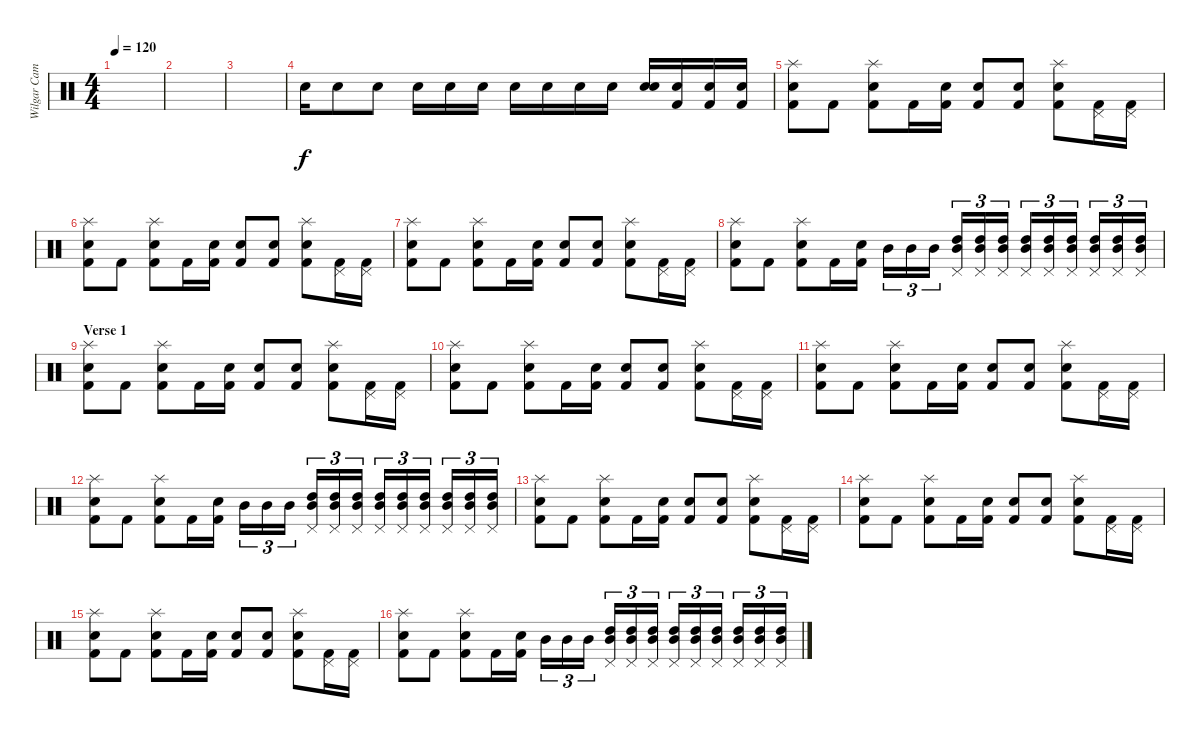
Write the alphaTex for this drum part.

\track ("Wilgar Campbell" "Wilgar Cam") {instrument percussion}
\staff {score}
\articulation defaults
\ts (4 4)
\tempo 120
\clef neutral
\ks c
|
|
|
"Electric Snare (hit)".16 "Snare (hit) 2".8 "Snare (hit) 2".8 "Snare (hit) 2".16 "Electric Snare (hit)".16 "Snare (hit) 2".16 "Snare (hit) 2".16 "Electric Snare (hit)".16 "Snare (hit) 2".16 "Electric Snare (hit)".16 ("Snare (hit) 2" "Electric Snare (hit)").16 ("Snare (hit) 2" "Kick (hit) 2").16 ("Snare (hit) 2" "Kick (hit) 2").16 ("Snare (hit) 2" "Kick (hit) 2").16 |
("Splash (hit)" "Snare (hit) 2" "Kick (hit) 2").8 "Kick (hit) 2".8 ("Splash (hit)" "Electric Snare (hit)" "Kick (hit) 2").8 "Kick (hit) 2".16 ("Snare (hit) 2" "Kick (hit) 2").16 ("Snare (hit) 2" "Kick (hit) 2").8 ("Electric Snare (hit)" "Kick (hit) 2").8 ("Splash (hit)" "Electric Snare (hit)" "Kick (hit) 2").8 ("Pedal Hi-Hat (hit)" "Kick (hit) 2").16 ("Pedal Hi-Hat (hit)" "Kick (hit) 2").16 |
("Splash (hit)" "Snare (hit) 2" "Kick (hit) 2").8 "Kick (hit) 2".8 ("Splash (hit)" "Electric Snare (hit)" "Kick (hit) 2").8 "Kick (hit) 2".16 ("Snare (hit) 2" "Kick (hit) 2").16 ("Snare (hit) 2" "Kick (hit) 2").8 ("Electric Snare (hit)" "Kick (hit) 2").8 ("Splash (hit)" "Electric Snare (hit)" "Kick (hit) 2").8 ("Pedal Hi-Hat (hit)" "Kick (hit) 2").16 ("Pedal Hi-Hat (hit)" "Kick (hit) 2").16 |
("Splash (hit)" "Snare (hit) 2" "Kick (hit) 2").8 "Kick (hit) 2".8 ("Splash (hit)" "Electric Snare (hit)" "Kick (hit) 2").8 "Kick (hit) 2".16 ("Snare (hit) 2" "Kick (hit) 2").16 ("Snare (hit) 2" "Kick (hit) 2").8 ("Electric Snare (hit)" "Kick (hit) 2").8 ("Splash (hit)" "Electric Snare (hit)" "Kick (hit) 2").8 ("Pedal Hi-Hat (hit)" "Kick (hit) 2").16 ("Pedal Hi-Hat (hit)" "Kick (hit) 2").16 |
("Splash (hit)" "Snare (hit) 2" "Kick (hit) 2").8 "Kick (hit) 2".8 ("Splash (hit)" "Electric Snare (hit)" "Kick (hit) 2").8 "Kick (hit) 2".16 ("Snare (hit) 2" "Kick (hit) 2").16 "Mid Tom (hit)".16{tu (3 2)} "Mid Tom (hit)".16{tu (3 2)} "Mid Tom (hit)".16{tu (3 2)} ("Pedal Hi-Hat (hit)" "High Tom (hit)" "Mid Tom (hit)").16{tu (3 2)} ("Pedal Hi-Hat (hit)" "High Tom (hit)" "Mid Tom (hit)").16{tu (3 2)} ("Pedal Hi-Hat (hit)" "High Tom (hit)" "Mid Tom (hit)").16{tu (3 2)} ("Pedal Hi-Hat (hit)" "High Tom (hit)" "Mid Tom (hit)").16{tu (3 2)} ("Pedal Hi-Hat (hit)" "High Tom (hit)" "Mid Tom (hit)").16{tu (3 2)} ("Pedal Hi-Hat (hit)" "High Tom (hit)" "Mid Tom (hit)").16{tu (3 2)} ("Pedal Hi-Hat (hit)" "High Tom (hit)" "Mid Tom (hit)").16{tu (3 2)} ("Pedal Hi-Hat (hit)" "High Tom (hit)" "Mid Tom (hit)").16{tu (3 2)} ("Pedal Hi-Hat (hit)" "High Tom (hit)" "Mid Tom (hit)").16{tu (3 2)} |
\section ("" "Verse 1")
("Splash (hit)" "Snare (hit) 2" "Kick (hit) 2").8 "Kick (hit) 2".8 ("Splash (hit)" "Electric Snare (hit)" "Kick (hit) 2").8 "Kick (hit) 2".16 ("Snare (hit) 2" "Kick (hit) 2").16 ("Snare (hit) 2" "Kick (hit) 2").8 ("Electric Snare (hit)" "Kick (hit) 2").8 ("Splash (hit)" "Electric Snare (hit)" "Kick (hit) 2").8 ("Pedal Hi-Hat (hit)" "Kick (hit) 2").16 ("Pedal Hi-Hat (hit)" "Kick (hit) 2").16 |
("Splash (hit)" "Snare (hit) 2" "Kick (hit) 2").8 "Kick (hit) 2".8 ("Splash (hit)" "Electric Snare (hit)" "Kick (hit) 2").8 "Kick (hit) 2".16 ("Snare (hit) 2" "Kick (hit) 2").16 ("Snare (hit) 2" "Kick (hit) 2").8 ("Electric Snare (hit)" "Kick (hit) 2").8 ("Splash (hit)" "Electric Snare (hit)" "Kick (hit) 2").8 ("Pedal Hi-Hat (hit)" "Kick (hit) 2").16 ("Pedal Hi-Hat (hit)" "Kick (hit) 2").16 |
("Splash (hit)" "Snare (hit) 2" "Kick (hit) 2").8 "Kick (hit) 2".8 ("Splash (hit)" "Electric Snare (hit)" "Kick (hit) 2").8 "Kick (hit) 2".16 ("Snare (hit) 2" "Kick (hit) 2").16 ("Snare (hit) 2" "Kick (hit) 2").8 ("Electric Snare (hit)" "Kick (hit) 2").8 ("Splash (hit)" "Electric Snare (hit)" "Kick (hit) 2").8 ("Pedal Hi-Hat (hit)" "Kick (hit) 2").16 ("Pedal Hi-Hat (hit)" "Kick (hit) 2").16 |
("Splash (hit)" "Snare (hit) 2" "Kick (hit) 2").8 "Kick (hit) 2".8 ("Splash (hit)" "Electric Snare (hit)" "Kick (hit) 2").8 "Kick (hit) 2".16 ("Snare (hit) 2" "Kick (hit) 2").16 "Mid Tom (hit)".16{tu (3 2)} "Mid Tom (hit)".16{tu (3 2)} "Mid Tom (hit)".16{tu (3 2)} ("Pedal Hi-Hat (hit)" "High Tom (hit)" "Mid Tom (hit)").16{tu (3 2)} ("Pedal Hi-Hat (hit)" "High Tom (hit)" "Mid Tom (hit)").16{tu (3 2)} ("Pedal Hi-Hat (hit)" "High Tom (hit)" "Mid Tom (hit)").16{tu (3 2)} ("Pedal Hi-Hat (hit)" "High Tom (hit)" "Mid Tom (hit)").16{tu (3 2)} ("Pedal Hi-Hat (hit)" "High Tom (hit)" "Mid Tom (hit)").16{tu (3 2)} ("Pedal Hi-Hat (hit)" "High Tom (hit)" "Mid Tom (hit)").16{tu (3 2)} ("Pedal Hi-Hat (hit)" "High Tom (hit)" "Mid Tom (hit)").16{tu (3 2)} ("Pedal Hi-Hat (hit)" "High Tom (hit)" "Mid Tom (hit)").16{tu (3 2)} ("Pedal Hi-Hat (hit)" "High Tom (hit)" "Mid Tom (hit)").16{tu (3 2)} |
("Splash (hit)" "Snare (hit) 2" "Kick (hit) 2").8 "Kick (hit) 2".8 ("Splash (hit)" "Electric Snare (hit)" "Kick (hit) 2").8 "Kick (hit) 2".16 ("Snare (hit) 2" "Kick (hit) 2").16 ("Snare (hit) 2" "Kick (hit) 2").8 ("Electric Snare (hit)" "Kick (hit) 2").8 ("Splash (hit)" "Electric Snare (hit)" "Kick (hit) 2").8 ("Pedal Hi-Hat (hit)" "Kick (hit) 2").16 ("Pedal Hi-Hat (hit)" "Kick (hit) 2").16 |
("Splash (hit)" "Snare (hit) 2" "Kick (hit) 2").8 "Kick (hit) 2".8 ("Splash (hit)" "Electric Snare (hit)" "Kick (hit) 2").8 "Kick (hit) 2".16 ("Snare (hit) 2" "Kick (hit) 2").16 ("Snare (hit) 2" "Kick (hit) 2").8 ("Electric Snare (hit)" "Kick (hit) 2").8 ("Splash (hit)" "Electric Snare (hit)" "Kick (hit) 2").8 ("Pedal Hi-Hat (hit)" "Kick (hit) 2").16 ("Pedal Hi-Hat (hit)" "Kick (hit) 2").16 |
("Splash (hit)" "Snare (hit) 2" "Kick (hit) 2").8 "Kick (hit) 2".8 ("Splash (hit)" "Electric Snare (hit)" "Kick (hit) 2").8 "Kick (hit) 2".16 ("Snare (hit) 2" "Kick (hit) 2").16 ("Snare (hit) 2" "Kick (hit) 2").8 ("Electric Snare (hit)" "Kick (hit) 2").8 ("Splash (hit)" "Electric Snare (hit)" "Kick (hit) 2").8 ("Pedal Hi-Hat (hit)" "Kick (hit) 2").16 ("Pedal Hi-Hat (hit)" "Kick (hit) 2").16 |
("Splash (hit)" "Snare (hit) 2" "Kick (hit) 2").8 "Kick (hit) 2".8 ("Splash (hit)" "Electric Snare (hit)" "Kick (hit) 2").8 "Kick (hit) 2".16 ("Snare (hit) 2" "Kick (hit) 2").16 "Mid Tom (hit)".16{tu (3 2)} "Mid Tom (hit)".16{tu (3 2)} "Mid Tom (hit)".16{tu (3 2)} ("Pedal Hi-Hat (hit)" "High Tom (hit)" "Mid Tom (hit)").16{tu (3 2)} ("Pedal Hi-Hat (hit)" "High Tom (hit)" "Mid Tom (hit)").16{tu (3 2)} ("Pedal Hi-Hat (hit)" "High Tom (hit)" "Mid Tom (hit)").16{tu (3 2)} ("Pedal Hi-Hat (hit)" "High Tom (hit)" "Mid Tom (hit)").16{tu (3 2)} ("Pedal Hi-Hat (hit)" "High Tom (hit)" "Mid Tom (hit)").16{tu (3 2)} ("Pedal Hi-Hat (hit)" "High Tom (hit)" "Mid Tom (hit)").16{tu (3 2)} ("Pedal Hi-Hat (hit)" "High Tom (hit)" "Mid Tom (hit)").16{tu (3 2)} ("Pedal Hi-Hat (hit)" "High Tom (hit)" "Mid Tom (hit)").16{tu (3 2)} ("Pedal Hi-Hat (hit)" "High Tom (hit)" "Mid Tom (hit)").16{tu (3 2)}
